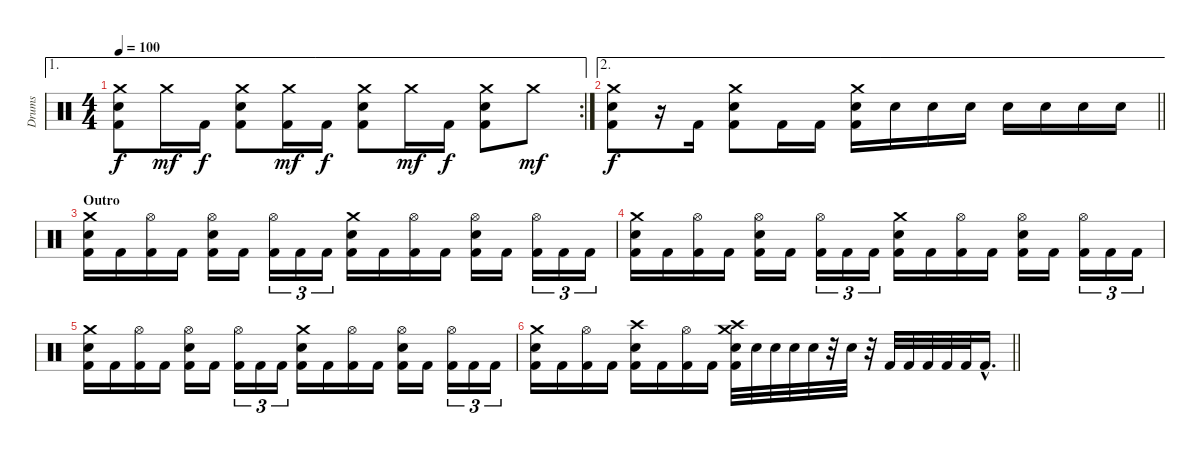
\track ("Drums" "Drums") {instrument percussion}
\staff {score}
\articulation defaults
\ae 1
\rc 2
\ts (4 4)
\tempo 100
\clef neutral
\ks c
("Crash medium (hit)" "Electric Snare (hit)" "Kick (hit) 2").8{dy f} "Crash medium (hit)".16{dy mf} "Kick (hit) 2".16{dy f} ("Crash medium (hit)" "Electric Snare (hit)" "Kick (hit) 2").8 ("Crash medium (hit)" "Kick (hit) 2").16{dy mf} "Kick (hit) 2".16{dy f} ("Crash medium (hit)" "Electric Snare (hit)" "Kick (hit) 2").8 "Crash medium (hit)".16{dy mf} "Kick (hit) 2".16{dy f} ("Crash medium (hit)" "Electric Snare (hit)" "Kick (hit) 2").8 "Crash medium (hit)".8{dy mf} |
\ae 2
\barLineRight lightlight
("Crash medium (hit)" "Electric Snare (hit)" "Kick (hit) 2").8{dy f} r.16 "Kick (hit) 2".16 ("Crash medium (hit)" "Electric Snare (hit)" "Kick (hit) 2").8 "Kick (hit) 2".16 "Kick (hit) 2".16 ("Crash medium (hit)" "Electric Snare (hit)" "Kick (hit) 2").16 "Electric Snare (hit)".16 "Electric Snare (hit)".16 "Electric Snare (hit)".16 "Electric Snare (hit)".16 "Electric Snare (hit)".16 "Electric Snare (hit)".16 "Electric Snare (hit)".16 |
\section ("" "Outro")
("Crash medium (hit)" "Electric Snare (hit)" "Kick (hit) 2").16 "Kick (hit) 2".16 ("Hi-Hat (open)" "Kick (hit) 2").16 "Kick (hit) 2".16 ("Hi-Hat (open)" "Electric Snare (hit)" "Kick (hit) 2").16 "Kick (hit) 2".16 ("Hi-Hat (open)" "Kick (hit) 2").16{tu (3 2)} "Kick (hit) 2".16{tu (3 2)} "Kick (hit) 2".16{tu (3 2)} ("Crash medium (hit)" "Electric Snare (hit)" "Kick (hit) 2").16 "Kick (hit) 2".16 ("Hi-Hat (open)" "Kick (hit) 2").16 "Kick (hit) 2".16 ("Hi-Hat (open)" "Electric Snare (hit)" "Kick (hit) 2").16 "Kick (hit) 2".16 ("Hi-Hat (open)" "Kick (hit) 2").16{tu (3 2)} "Kick (hit) 2".16{tu (3 2)} "Kick (hit) 2".16{tu (3 2)} |
("Crash medium (hit)" "Electric Snare (hit)" "Kick (hit) 2").16 "Kick (hit) 2".16 ("Hi-Hat (open)" "Kick (hit) 2").16 "Kick (hit) 2".16 ("Hi-Hat (open)" "Electric Snare (hit)" "Kick (hit) 2").16 "Kick (hit) 2".16 ("Hi-Hat (open)" "Kick (hit) 2").16{tu (3 2)} "Kick (hit) 2".16{tu (3 2)} "Kick (hit) 2".16{tu (3 2)} ("Crash medium (hit)" "Electric Snare (hit)" "Kick (hit) 2").16 "Kick (hit) 2".16 ("Hi-Hat (open)" "Kick (hit) 2").16 "Kick (hit) 2".16 ("Hi-Hat (open)" "Electric Snare (hit)" "Kick (hit) 2").16 "Kick (hit) 2".16 ("Hi-Hat (open)" "Kick (hit) 2").16{tu (3 2)} "Kick (hit) 2".16{tu (3 2)} "Kick (hit) 2".16{tu (3 2)} |
("Crash medium (hit)" "Electric Snare (hit)" "Kick (hit) 2").16 "Kick (hit) 2".16 ("Hi-Hat (open)" "Kick (hit) 2").16 "Kick (hit) 2".16 ("Hi-Hat (open)" "Electric Snare (hit)" "Kick (hit) 2").16 "Kick (hit) 2".16 ("Hi-Hat (open)" "Kick (hit) 2").16{tu (3 2)} "Kick (hit) 2".16{tu (3 2)} "Kick (hit) 2".16{tu (3 2)} ("Crash medium (hit)" "Electric Snare (hit)" "Kick (hit) 2").16 "Kick (hit) 2".16 ("Hi-Hat (open)" "Kick (hit) 2").16 "Kick (hit) 2".16 ("Hi-Hat (open)" "Electric Snare (hit)" "Kick (hit) 2").16 "Kick (hit) 2".16 ("Hi-Hat (open)" "Kick (hit) 2").16{tu (3 2)} "Kick (hit) 2".16{tu (3 2)} "Kick (hit) 2".16{tu (3 2)} |
\barLineRight lightlight
("Crash medium (hit)" "Electric Snare (hit)" "Kick (hit) 2").16 "Kick (hit) 2".16 ("Hi-Hat (open)" "Kick (hit) 2").16 "Kick (hit) 2".16 ("Crash high (hit)" "Electric Snare (hit)" "Kick (hit) 2").16 "Kick (hit) 2".16 ("Hi-Hat (open)" "Kick (hit) 2").16 "Kick (hit) 2".16 ("Crash medium (hit)" "Crash high (hit)" "Electric Snare (hit)" "Kick (hit) 2").32 "Electric Snare (hit)".32 "Electric Snare (hit)".32 "Electric Snare (hit)".32 "Electric Snare (hit)".32 r.32 "Electric Snare (hit)".32 r.32 "Kick (hit) 2".32 "Kick (hit) 2".32 "Kick (hit) 2".32 "Kick (hit) 2".32 "Kick (hit) 2".32 "Kick (hit) 2"{hac}.16{d}
